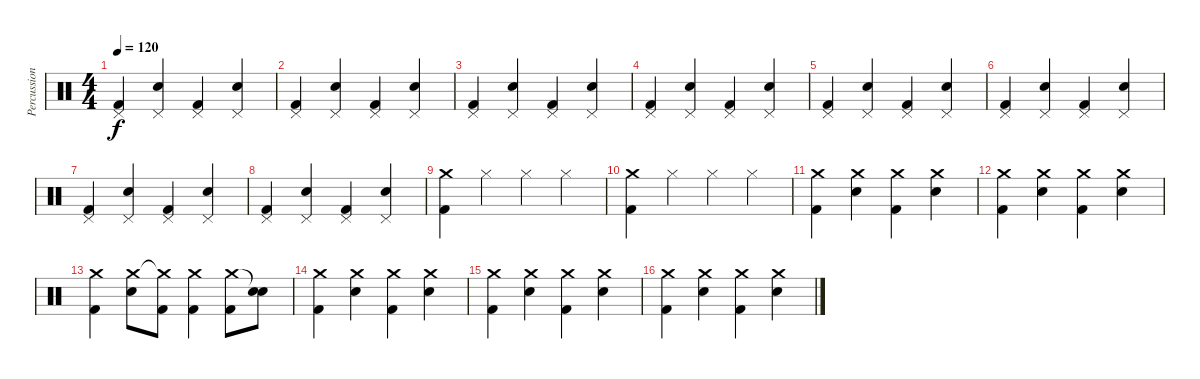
\track ("Percussions" "Percussion") {instrument percussion}
\staff {score}
\articulation defaults
\ts (4 4)
\tempo 120
\clef neutral
\ks c
("Pedal Hi-Hat (hit)" "Kick (hit) 2").4{dy f} ("Pedal Hi-Hat (hit)" "Snare (hit) 2").4 ("Pedal Hi-Hat (hit)" "Kick (hit) 2").4 ("Pedal Hi-Hat (hit)" "Snare (hit) 2").4 |
("Pedal Hi-Hat (hit)" "Kick (hit) 2").4 ("Pedal Hi-Hat (hit)" "Snare (hit) 2").4 ("Pedal Hi-Hat (hit)" "Kick (hit) 2").4 ("Pedal Hi-Hat (hit)" "Snare (hit) 2").4 |
("Pedal Hi-Hat (hit)" "Kick (hit) 2").4 ("Pedal Hi-Hat (hit)" "Snare (hit) 2").4 ("Pedal Hi-Hat (hit)" "Kick (hit) 2").4 ("Pedal Hi-Hat (hit)" "Snare (hit) 2").4 |
("Pedal Hi-Hat (hit)" "Kick (hit) 2").4 ("Pedal Hi-Hat (hit)" "Snare (hit) 2").4 ("Pedal Hi-Hat (hit)" "Kick (hit) 2").4 ("Pedal Hi-Hat (hit)" "Snare (hit) 2").4 |
("Pedal Hi-Hat (hit)" "Kick (hit) 2").4 ("Pedal Hi-Hat (hit)" "Snare (hit) 2").4 ("Pedal Hi-Hat (hit)" "Kick (hit) 2").4 ("Pedal Hi-Hat (hit)" "Snare (hit) 2").4 |
("Pedal Hi-Hat (hit)" "Kick (hit) 2").4 ("Pedal Hi-Hat (hit)" "Snare (hit) 2").4 ("Pedal Hi-Hat (hit)" "Kick (hit) 2").4 ("Pedal Hi-Hat (hit)" "Snare (hit) 2").4 |
("Pedal Hi-Hat (hit)" "Kick (hit) 2").4 ("Pedal Hi-Hat (hit)" "Snare (hit) 2").4 ("Pedal Hi-Hat (hit)" "Kick (hit) 2").4 ("Pedal Hi-Hat (hit)" "Snare (hit) 2").4 |
("Pedal Hi-Hat (hit)" "Kick (hit) 2").4 ("Pedal Hi-Hat (hit)" "Snare (hit) 2").4 ("Pedal Hi-Hat (hit)" "Kick (hit) 2").4 ("Pedal Hi-Hat (hit)" "Snare (hit) 2").4 |
("Crash medium (hit)" "Kick (hit) 2").4 "Hi-Hat (closed)".4 "Hi-Hat (closed)".4 "Hi-Hat (closed)".4 |
("Crash medium (hit)" "Kick (hit) 2").4 "Hi-Hat (closed)".4 "Hi-Hat (closed)".4 "Hi-Hat (closed)".4 |
("Crash medium (hit)" "Kick (hit) 2").4 ("Crash medium (hit)" "Snare (hit) 2").4 ("Crash medium (hit)" "Kick (hit) 2").4 ("Crash medium (hit)" "Snare (hit) 2").4 |
("Crash medium (hit)" "Kick (hit) 2").4 ("Crash medium (hit)" "Snare (hit) 2").4 ("Crash medium (hit)" "Kick (hit) 2").4 ("Crash medium (hit)" "Snare (hit) 2").4 |
("Crash medium (hit)" "Kick (hit) 2").4 ("Crash medium (hit)" "Snare (hit) 2").8 ("Crash medium (hit)"{t} "Kick (hit) 2").8 ("Crash medium (hit)" "Kick (hit) 2").4 ("Crash medium (hit)" "Kick (hit) 2").8 ("Snare (hit)"{t} "Snare (hit) 2").8 |
("Crash medium (hit)" "Kick (hit) 2").4 ("Crash medium (hit)" "Snare (hit) 2").4 ("Crash medium (hit)" "Kick (hit) 2").4 ("Crash medium (hit)" "Snare (hit) 2").4 |
("Crash medium (hit)" "Kick (hit) 2").4 ("Crash medium (hit)" "Snare (hit) 2").4 ("Crash medium (hit)" "Kick (hit) 2").4 ("Crash medium (hit)" "Snare (hit) 2").4 |
("Crash medium (hit)" "Kick (hit) 2").4 ("Crash medium (hit)" "Snare (hit) 2").4 ("Crash medium (hit)" "Kick (hit) 2").4 ("Crash medium (hit)" "Snare (hit) 2").4
